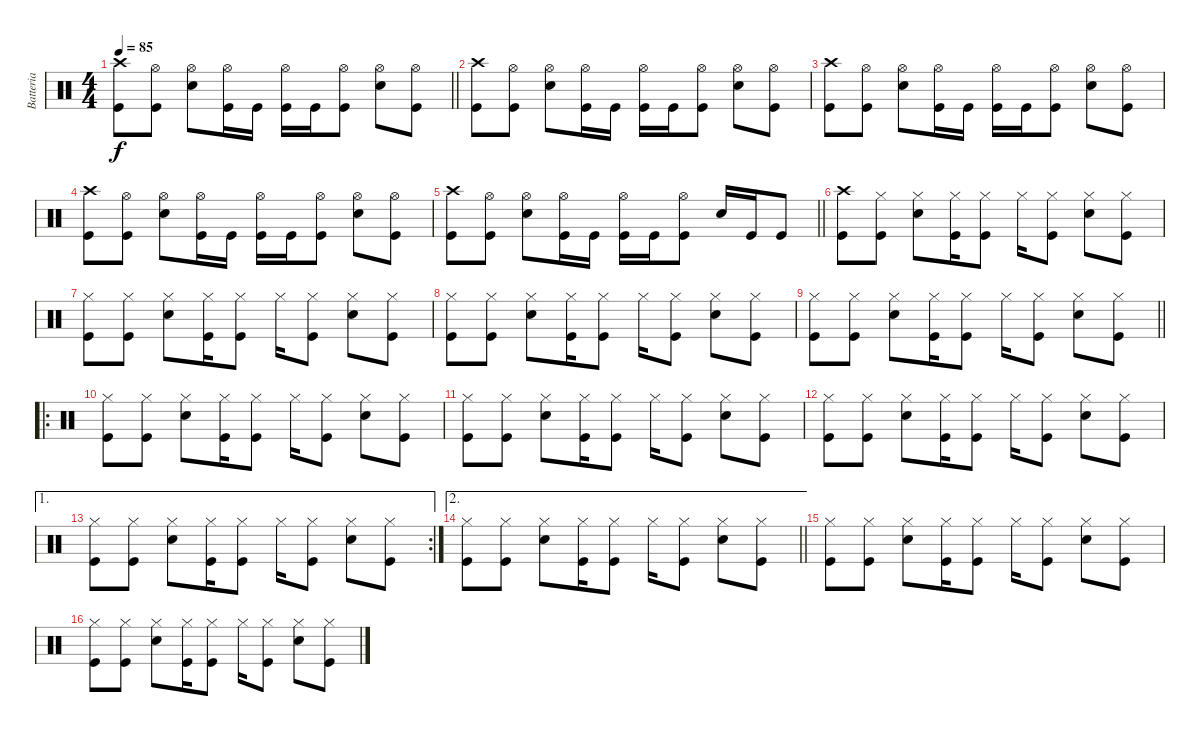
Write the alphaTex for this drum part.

\track ("Batteria" "Batteria") {instrument percussion}
\staff {score}
\articulation defaults
\ts (4 4)
\tempo 85
\clef neutral
\barLineRight lightlight
\ks c
("Kick (hit)" "Crash high (hit)").8{dy f} ("Kick (hit)" "Hi-Hat (open)").8 ("Snare (hit) 2" "Hi-Hat (open)").8 ("Kick (hit)" "Hi-Hat (open)").16 "Kick (hit)".16 ("Kick (hit)" "Hi-Hat (open)").16 "Kick (hit)".16 ("Kick (hit)" "Hi-Hat (open)").8 ("Hi-Hat (open)" "Snare (hit) 2").8 ("Kick (hit)" "Hi-Hat (open)").8 |
("Kick (hit)" "Crash high (hit)").8 ("Kick (hit)" "Hi-Hat (open)").8 ("Snare (hit) 2" "Hi-Hat (open)").8 ("Kick (hit)" "Hi-Hat (open)").16 "Kick (hit)".16 ("Kick (hit)" "Hi-Hat (open)").16 "Kick (hit)".16 ("Kick (hit)" "Hi-Hat (open)").8 ("Hi-Hat (open)" "Snare (hit) 2").8 ("Kick (hit)" "Hi-Hat (open)").8 |
("Kick (hit)" "Crash high (hit)").8 ("Kick (hit)" "Hi-Hat (open)").8 ("Snare (hit) 2" "Hi-Hat (open)").8 ("Kick (hit)" "Hi-Hat (open)").16 "Kick (hit)".16 ("Kick (hit)" "Hi-Hat (open)").16 "Kick (hit)".16 ("Kick (hit)" "Hi-Hat (open)").8 ("Hi-Hat (open)" "Snare (hit) 2").8 ("Kick (hit)" "Hi-Hat (open)").8 |
("Kick (hit)" "Crash high (hit)").8 ("Kick (hit)" "Hi-Hat (open)").8 ("Snare (hit) 2" "Hi-Hat (open)").8 ("Kick (hit)" "Hi-Hat (open)").16 "Kick (hit)".16 ("Kick (hit)" "Hi-Hat (open)").16 "Kick (hit)".16 ("Kick (hit)" "Hi-Hat (open)").8 ("Hi-Hat (open)" "Snare (hit) 2").8 ("Kick (hit)" "Hi-Hat (open)").8 |
\barLineRight lightlight
("Kick (hit)" "Crash high (hit)").8 ("Kick (hit)" "Hi-Hat (open)").8 ("Snare (hit) 2" "Hi-Hat (open)").8 ("Kick (hit)" "Hi-Hat (open)").16 "Kick (hit)".16 ("Kick (hit)" "Hi-Hat (open)").16 "Kick (hit)".16 ("Kick (hit)" "Hi-Hat (open)").8 "Snare (hit) 2".16 "Kick (hit)".16 "Kick (hit)".8 |
("Kick (hit)" "Crash high (hit)").8 ("Kick (hit)" "Hi-Hat (closed)").8 ("Snare (hit) 2" "Hi-Hat (closed)").8 ("Kick (hit)" "Hi-Hat (closed)").16 ("Kick (hit)" "Hi-Hat (closed)").8 "Hi-Hat (closed)".16 ("Kick (hit)" "Hi-Hat (closed)").8 ("Snare (hit) 2" "Hi-Hat (closed)").8 ("Kick (hit)" "Hi-Hat (closed)").8 |
("Kick (hit)" "Hi-Hat (closed)").8 ("Kick (hit)" "Hi-Hat (closed)").8 ("Snare (hit) 2" "Hi-Hat (closed)").8 ("Kick (hit)" "Hi-Hat (closed)").16 ("Kick (hit)" "Hi-Hat (closed)").8 "Hi-Hat (closed)".16 ("Kick (hit)" "Hi-Hat (closed)").8 ("Snare (hit) 2" "Hi-Hat (closed)").8 ("Kick (hit)" "Hi-Hat (closed)").8 |
("Kick (hit)" "Hi-Hat (closed)").8 ("Kick (hit)" "Hi-Hat (closed)").8 ("Snare (hit) 2" "Hi-Hat (closed)").8 ("Kick (hit)" "Hi-Hat (closed)").16 ("Kick (hit)" "Hi-Hat (closed)").8 "Hi-Hat (closed)".16 ("Kick (hit)" "Hi-Hat (closed)").8 ("Snare (hit) 2" "Hi-Hat (closed)").8 ("Kick (hit)" "Hi-Hat (closed)").8 |
\barLineRight lightlight
("Kick (hit)" "Hi-Hat (closed)").8 ("Kick (hit)" "Hi-Hat (closed)").8 ("Snare (hit) 2" "Hi-Hat (closed)").8 ("Kick (hit)" "Hi-Hat (closed)").16 ("Kick (hit)" "Hi-Hat (closed)").8 "Hi-Hat (closed)".16 ("Kick (hit)" "Hi-Hat (closed)").8 ("Snare (hit) 2" "Hi-Hat (closed)").8 ("Kick (hit)" "Hi-Hat (closed)").8 |
\ro
("Kick (hit)" "Hi-Hat (closed)").8 ("Kick (hit)" "Hi-Hat (closed)").8 ("Snare (hit) 2" "Hi-Hat (closed)").8 ("Kick (hit)" "Hi-Hat (closed)").16 ("Kick (hit)" "Hi-Hat (closed)").8 "Hi-Hat (closed)".16 ("Kick (hit)" "Hi-Hat (closed)").8 ("Snare (hit) 2" "Hi-Hat (closed)").8 ("Kick (hit)" "Hi-Hat (closed)").8 |
("Kick (hit)" "Hi-Hat (closed)").8 ("Kick (hit)" "Hi-Hat (closed)").8 ("Snare (hit) 2" "Hi-Hat (closed)").8 ("Kick (hit)" "Hi-Hat (closed)").16 ("Kick (hit)" "Hi-Hat (closed)").8 "Hi-Hat (closed)".16 ("Kick (hit)" "Hi-Hat (closed)").8 ("Snare (hit) 2" "Hi-Hat (closed)").8 ("Kick (hit)" "Hi-Hat (closed)").8 |
("Kick (hit)" "Hi-Hat (closed)").8 ("Kick (hit)" "Hi-Hat (closed)").8 ("Snare (hit) 2" "Hi-Hat (closed)").8 ("Kick (hit)" "Hi-Hat (closed)").16 ("Kick (hit)" "Hi-Hat (closed)").8 "Hi-Hat (closed)".16 ("Kick (hit)" "Hi-Hat (closed)").8 ("Snare (hit) 2" "Hi-Hat (closed)").8 ("Kick (hit)" "Hi-Hat (closed)").8 |
\ae 1
\rc 2
("Kick (hit)" "Hi-Hat (closed)").8 ("Kick (hit)" "Hi-Hat (closed)").8 ("Snare (hit) 2" "Hi-Hat (closed)").8 ("Kick (hit)" "Hi-Hat (closed)").16 ("Kick (hit)" "Hi-Hat (closed)").8 "Hi-Hat (closed)".16 ("Kick (hit)" "Hi-Hat (closed)").8 ("Snare (hit) 2" "Hi-Hat (closed)").8 ("Kick (hit)" "Hi-Hat (closed)").8 |
\ae 2
\barLineRight lightlight
("Kick (hit)" "Hi-Hat (closed)").8 ("Kick (hit)" "Hi-Hat (closed)").8 ("Snare (hit) 2" "Hi-Hat (closed)").8 ("Kick (hit)" "Hi-Hat (closed)").16 ("Kick (hit)" "Hi-Hat (closed)").8 "Hi-Hat (closed)".16 ("Kick (hit)" "Hi-Hat (closed)").8 ("Snare (hit) 2" "Hi-Hat (closed)").8 ("Kick (hit)" "Hi-Hat (closed)").8 |
("Kick (hit)" "Hi-Hat (closed)").8 ("Kick (hit)" "Hi-Hat (closed)").8 ("Snare (hit) 2" "Hi-Hat (closed)").8 ("Kick (hit)" "Hi-Hat (closed)").16 ("Kick (hit)" "Hi-Hat (closed)").8 "Hi-Hat (closed)".16 ("Kick (hit)" "Hi-Hat (closed)").8 ("Snare (hit) 2" "Hi-Hat (closed)").8 ("Kick (hit)" "Hi-Hat (closed)").8 |
("Kick (hit)" "Hi-Hat (closed)").8 ("Kick (hit)" "Hi-Hat (closed)").8 ("Snare (hit) 2" "Hi-Hat (closed)").8 ("Kick (hit)" "Hi-Hat (closed)").16 ("Kick (hit)" "Hi-Hat (closed)").8 "Hi-Hat (closed)".16 ("Kick (hit)" "Hi-Hat (closed)").8 ("Snare (hit) 2" "Hi-Hat (closed)").8 ("Kick (hit)" "Hi-Hat (closed)").8
